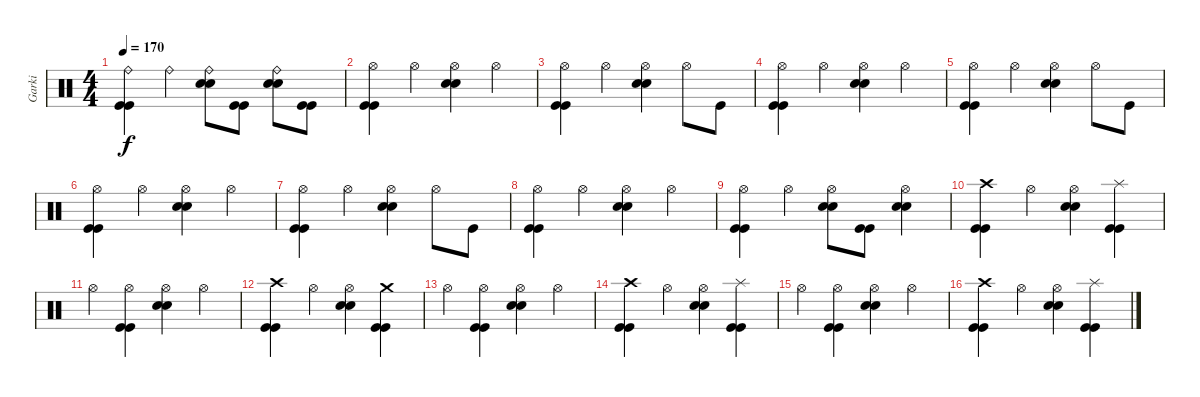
\track ("Garki" "Garki") {instrument percussion}
\staff {score}
\articulation defaults
\ts (4 4)
\tempo 170
\clef neutral
\ks c
("Kick (hit)" "Kick (hit)" "Ride (bell)").4{dy f} "Ride (bell)".4 ("Electric Snare (hit)" "Electric Snare (hit)" "Ride (bell)").8 ("Kick (hit)" "Kick (hit)").8 ("Electric Snare (hit)" "Electric Snare (hit)" "Ride (bell)").8 ("Kick (hit)" "Kick (hit)").8 |
("Kick (hit)" "Kick (hit)" "Hi-Hat (open)").4 "Hi-Hat (open)".4 ("Electric Snare (hit)" "Electric Snare (hit)" "Hi-Hat (open)").4 "Hi-Hat (open)".4 |
("Kick (hit)" "Kick (hit)" "Hi-Hat (open)").4 "Hi-Hat (open)".4 ("Electric Snare (hit)" "Electric Snare (hit)" "Hi-Hat (open)").4 "Hi-Hat (open)".8 "Kick (hit)".8 |
("Kick (hit)" "Kick (hit)" "Hi-Hat (open)").4 "Hi-Hat (open)".4 ("Electric Snare (hit)" "Electric Snare (hit)" "Hi-Hat (open)").4 "Hi-Hat (open)".4 |
("Kick (hit)" "Kick (hit)" "Hi-Hat (open)").4 "Hi-Hat (open)".4 ("Electric Snare (hit)" "Electric Snare (hit)" "Hi-Hat (open)").4 "Hi-Hat (open)".8 "Kick (hit)".8 |
("Kick (hit)" "Kick (hit)" "Hi-Hat (open)").4 "Hi-Hat (open)".4 ("Electric Snare (hit)" "Electric Snare (hit)" "Hi-Hat (open)").4 "Hi-Hat (open)".4 |
("Kick (hit)" "Kick (hit)" "Hi-Hat (open)").4 "Hi-Hat (open)".4 ("Electric Snare (hit)" "Electric Snare (hit)" "Hi-Hat (open)").4 "Hi-Hat (open)".8 "Kick (hit)".8 |
("Kick (hit)" "Kick (hit)" "Hi-Hat (open)").4 "Hi-Hat (open)".4 ("Electric Snare (hit)" "Electric Snare (hit)" "Hi-Hat (open)").4 "Hi-Hat (open)".4 |
("Kick (hit)" "Kick (hit)" "Hi-Hat (open)").4 "Hi-Hat (open)".4 ("Electric Snare (hit)" "Electric Snare (hit)" "Hi-Hat (open)").8 ("Kick (hit)" "Kick (hit)").8 ("Electric Snare (hit)" "Electric Snare (hit)" "Hi-Hat (open)").4 |
("Kick (hit)" "Kick (hit)" "Crash high (hit)").4 "Hi-Hat (open)".4 ("Electric Snare (hit)" "Electric Snare (hit)" "Hi-Hat (open)").4 ("Kick (hit)" "Kick (hit)" "Splash (hit)").4 |
"Hi-Hat (open)".4 ("Kick (hit)" "Kick (hit)" "Hi-Hat (open)").4 ("Electric Snare (hit)" "Electric Snare (hit)" "Hi-Hat (open)").4 "Hi-Hat (open)".4 |
("Kick (hit)" "Kick (hit)" "Crash high (hit)").4 "Hi-Hat (open)".4 ("Electric Snare (hit)" "Electric Snare (hit)" "Hi-Hat (open)").4 ("Kick (hit)" "Kick (hit)" "Crash medium (hit)").4 |
"Hi-Hat (open)".4 ("Kick (hit)" "Kick (hit)" "Hi-Hat (open)").4 ("Electric Snare (hit)" "Electric Snare (hit)" "Hi-Hat (open)").4 "Hi-Hat (open)".4 |
("Kick (hit)" "Kick (hit)" "Crash high (hit)").4 "Hi-Hat (open)".4 ("Electric Snare (hit)" "Electric Snare (hit)" "Hi-Hat (open)").4 ("Kick (hit)" "Kick (hit)" "Splash (hit)").4 |
"Hi-Hat (open)".4 ("Kick (hit)" "Kick (hit)" "Hi-Hat (open)").4 ("Electric Snare (hit)" "Electric Snare (hit)" "Hi-Hat (open)").4 "Hi-Hat (open)".4 |
("Kick (hit)" "Kick (hit)" "Crash high (hit)").4 "Hi-Hat (open)".4 ("Electric Snare (hit)" "Electric Snare (hit)" "Hi-Hat (open)").4 ("Kick (hit)" "Kick (hit)" "Splash (hit)").4
